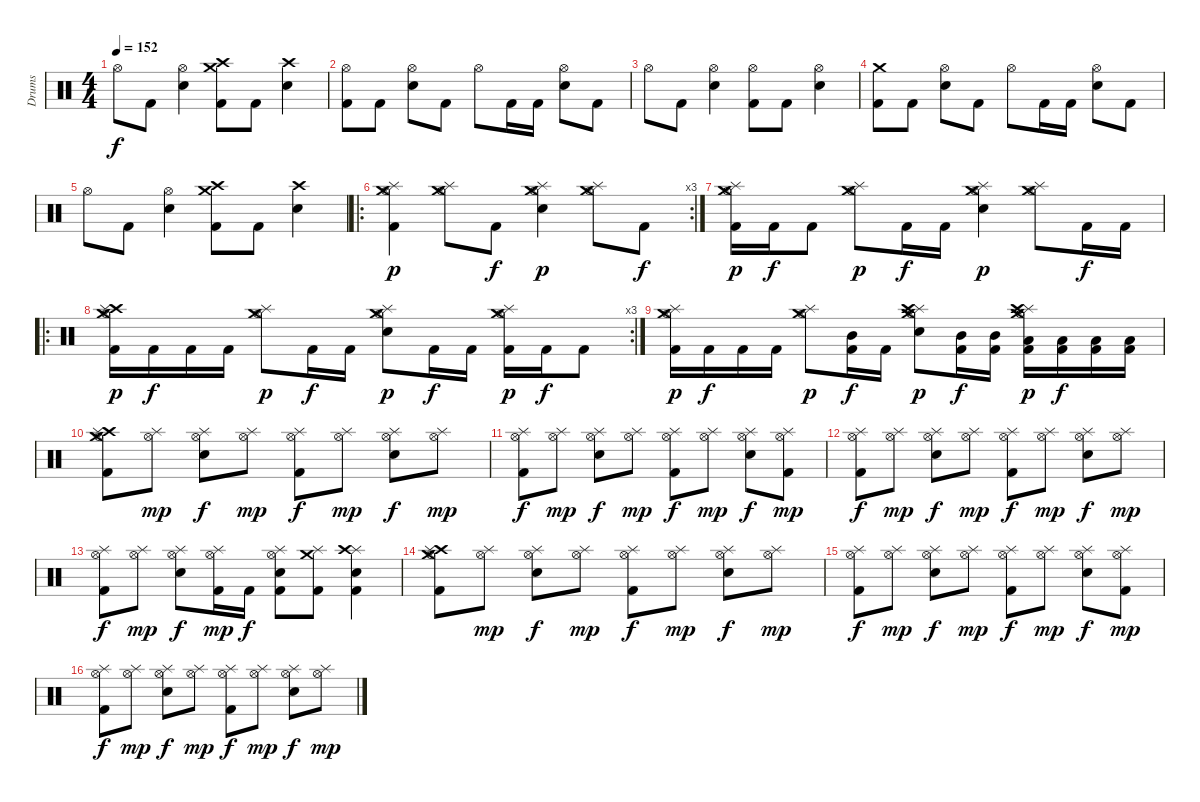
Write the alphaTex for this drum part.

\track ("Drums" "Drums") {instrument percussion}
\staff {score}
\articulation defaults
\ts (4 4)
\tempo 152
\clef neutral
\ks c "Hi-Hat (open)".8{dy f} "Kick (hit) 2".8
("Hi-Hat (open)" "Snare (hit) 2").4 ("Crash high (hit)" "Crash medium (hit)" "Kick (hit) 2").8 "Kick (hit) 2".8 ("Crash high (hit)" "Snare (hit) 2").4 |
("Hi-Hat (open)" "Kick (hit) 2").8 "Kick (hit) 2".8 ("Hi-Hat (open)" "Snare (hit) 2").8 "Kick (hit) 2".8 "Hi-Hat (open)".8 "Kick (hit) 2".16 "Kick (hit) 2".16 ("Hi-Hat (open)" "Snare (hit) 2").8 "Kick (hit) 2".8 |
"Hi-Hat (open)".8 "Kick (hit) 2".8 ("Hi-Hat (open)" "Snare (hit) 2").4 ("Hi-Hat (open)" "Kick (hit) 2").8 "Kick (hit) 2".8 ("Hi-Hat (open)" "Snare (hit) 2").4 |
("Crash medium (hit)" "Kick (hit) 2").8 "Kick (hit) 2".8 ("Hi-Hat (open)" "Snare (hit) 2").8 "Kick (hit) 2".8 "Hi-Hat (open)".8 "Kick (hit) 2".16 "Kick (hit) 2".16 ("Hi-Hat (open)" "Snare (hit) 2").8 "Kick (hit) 2".8 |
"Hi-Hat (open)".8 "Kick (hit) 2".8 ("Hi-Hat (open)" "Snare (hit) 2").4 ("Crash high (hit)" "Crash medium (hit)" "Kick (hit) 2").8 "Kick (hit) 2".8 ("Crash high (hit)" "Snare (hit) 2").4 |
\ro
\rc 3
("Crash medium (hit)" "Splash (hit)" "Hi-Hat (open)" "Kick (hit) 2").4{dy p} ("Crash medium (hit)" "Splash (hit)" "Hi-Hat (open)").8 "Kick (hit) 2".8{dy f} ("Crash medium (hit)" "Splash (hit)" "Hi-Hat (open)" "Snare (hit) 2").4{dy p} ("Crash medium (hit)" "Splash (hit)" "Hi-Hat (open)").8 "Kick (hit) 2".8{dy f} |
("Crash medium (hit)" "Splash (hit)" "Hi-Hat (open)" "Kick (hit) 2").16{dy p} "Kick (hit) 2".16{dy f} "Kick (hit) 2".8 ("Crash medium (hit)" "Splash (hit)" "Hi-Hat (open)").8{dy p} "Kick (hit) 2".16{dy f} "Kick (hit) 2".16 ("Crash medium (hit)" "Splash (hit)" "Hi-Hat (open)" "Snare (hit) 2").4{dy p} ("Crash medium (hit)" "Splash (hit)" "Hi-Hat (open)").8 "Kick (hit) 2".16{dy f} "Kick (hit) 2".16 |
\ro
\rc 3
("Crash high (hit)" "Splash (hit)" "Hi-Hat (open)" "Crash medium (hit)" "Kick (hit) 2").16{dy p} "Kick (hit) 2".16{dy f} "Kick (hit) 2".16 "Kick (hit) 2".16 ("Crash medium (hit)" "Splash (hit)" "Hi-Hat (open)").8{dy p} "Kick (hit) 2".16{dy f} "Kick (hit) 2".16 ("Crash medium (hit)" "Splash (hit)" "Hi-Hat (open)" "Snare (hit) 2").8{dy p} "Kick (hit) 2".16{dy f} "Kick (hit) 2".16 ("Crash medium (hit)" "Splash (hit)" "Hi-Hat (open)" "Kick (hit) 2").16{dy p} "Kick (hit) 2".16{dy f} "Kick (hit) 2".8 |
("Crash medium (hit)" "Splash (hit)" "Hi-Hat (open)" "Kick (hit) 2").16{dy p} "Kick (hit) 2".16{dy f} "Kick (hit) 2".16 "Kick (hit) 2".16 ("Crash medium (hit)" "Splash (hit)" "Hi-Hat (open)").8{dy p} ("Mid Tom (hit)" "Kick (hit) 2").16{dy f} "Kick (hit) 2".16 ("Crash medium (hit)" "Splash (hit)" "Hi-Hat (open)" "Snare (hit) 2" "Crash high (hit)").8{dy p} ("Mid Tom (hit)" "Kick (hit) 2").16{dy f} ("Mid Tom (hit)" "Kick (hit) 2").16 ("Crash medium (hit)" "Splash (hit)" "Hi-Hat (open)" "Crash high (hit)" "Low Tom (hit)" "Kick (hit) 2").16{dy p} ("Low Tom (hit)" "Kick (hit) 2").16{dy f} ("Low Floor Tom (hit)" "Kick (hit) 2").16 ("Low Floor Tom (hit)" "Kick (hit) 2").16 |
("Hi-Hat (open)" "Crash medium (hit)" "Crash high (hit)" "Splash (hit)" "Kick (hit) 2").8 ("Hi-Hat (open)" "Splash (hit)").8{dy mp} ("Hi-Hat (open)" "Splash (hit)" "Snare (hit) 2").8{dy f} ("Hi-Hat (open)" "Splash (hit)").8{dy mp} ("Hi-Hat (open)" "Splash (hit)" "Kick (hit) 2").8{dy f} ("Hi-Hat (open)" "Splash (hit)").8{dy mp} ("Hi-Hat (open)" "Splash (hit)" "Snare (hit) 2").8{dy f} ("Hi-Hat (open)" "Splash (hit)").8{dy mp} |
("Hi-Hat (open)" "Splash (hit)" "Kick (hit) 2").8{dy f} ("Hi-Hat (open)" "Splash (hit)").8{dy mp} ("Hi-Hat (open)" "Splash (hit)" "Snare (hit) 2").8{dy f} ("Hi-Hat (open)" "Splash (hit)").8{dy mp} ("Hi-Hat (open)" "Splash (hit)" "Kick (hit) 2").8{dy f} ("Hi-Hat (open)" "Splash (hit)").8{dy mp} ("Hi-Hat (open)" "Splash (hit)" "Snare (hit) 2").8{dy f} ("Hi-Hat (open)" "Splash (hit)" "Kick (hit) 2").8{dy mp} |
("Hi-Hat (open)" "Splash (hit)" "Kick (hit) 2").8{dy f} ("Hi-Hat (open)" "Splash (hit)").8{dy mp} ("Hi-Hat (open)" "Splash (hit)" "Snare (hit) 2").8{dy f} ("Hi-Hat (open)" "Splash (hit)").8{dy mp} ("Hi-Hat (open)" "Splash (hit)" "Kick (hit) 2").8{dy f} ("Hi-Hat (open)" "Splash (hit)").8{dy mp} ("Hi-Hat (open)" "Splash (hit)" "Snare (hit) 2").8{dy f} ("Hi-Hat (open)" "Splash (hit)").8{dy mp} |
("Hi-Hat (open)" "Splash (hit)" "Kick (hit) 2").8{dy f} ("Hi-Hat (open)" "Splash (hit)").8{dy mp} ("Hi-Hat (open)" "Splash (hit)" "Snare (hit) 2").8{dy f} ("Hi-Hat (open)" "Splash (hit)" "Kick (hit) 2").16{dy mp} "Kick (hit) 2".16{dy f} ("Hi-Hat (open)" "Splash (hit)" "Snare (hit) 2" "Kick (hit) 2").8 ("Splash (hit)" "Crash medium (hit)" "Kick (hit) 2").8 ("Splash (hit)" "Crash high (hit)" "Snare (hit) 2" "Kick (hit) 2").4 |
("Hi-Hat (open)" "Crash medium (hit)" "Crash high (hit)" "Splash (hit)" "Kick (hit) 2").8 ("Hi-Hat (open)" "Splash (hit)").8{dy mp} ("Hi-Hat (open)" "Splash (hit)" "Snare (hit) 2").8{dy f} ("Hi-Hat (open)" "Splash (hit)").8{dy mp} ("Hi-Hat (open)" "Splash (hit)" "Kick (hit) 2").8{dy f} ("Hi-Hat (open)" "Splash (hit)").8{dy mp} ("Hi-Hat (open)" "Splash (hit)" "Snare (hit) 2").8{dy f} ("Hi-Hat (open)" "Splash (hit)").8{dy mp} |
("Hi-Hat (open)" "Splash (hit)" "Kick (hit) 2").8{dy f} ("Hi-Hat (open)" "Splash (hit)").8{dy mp} ("Hi-Hat (open)" "Splash (hit)" "Snare (hit) 2").8{dy f} ("Hi-Hat (open)" "Splash (hit)").8{dy mp} ("Hi-Hat (open)" "Splash (hit)" "Kick (hit) 2").8{dy f} ("Hi-Hat (open)" "Splash (hit)").8{dy mp} ("Hi-Hat (open)" "Splash (hit)" "Snare (hit) 2").8{dy f} ("Hi-Hat (open)" "Splash (hit)" "Kick (hit) 2").8{dy mp} |
("Hi-Hat (open)" "Splash (hit)" "Kick (hit) 2").8{dy f} ("Hi-Hat (open)" "Splash (hit)").8{dy mp} ("Hi-Hat (open)" "Splash (hit)" "Snare (hit) 2").8{dy f} ("Hi-Hat (open)" "Splash (hit)").8{dy mp} ("Hi-Hat (open)" "Splash (hit)" "Kick (hit) 2").8{dy f} ("Hi-Hat (open)" "Splash (hit)").8{dy mp} ("Hi-Hat (open)" "Splash (hit)" "Snare (hit) 2").8{dy f} ("Hi-Hat (open)" "Splash (hit)").8{dy mp}
